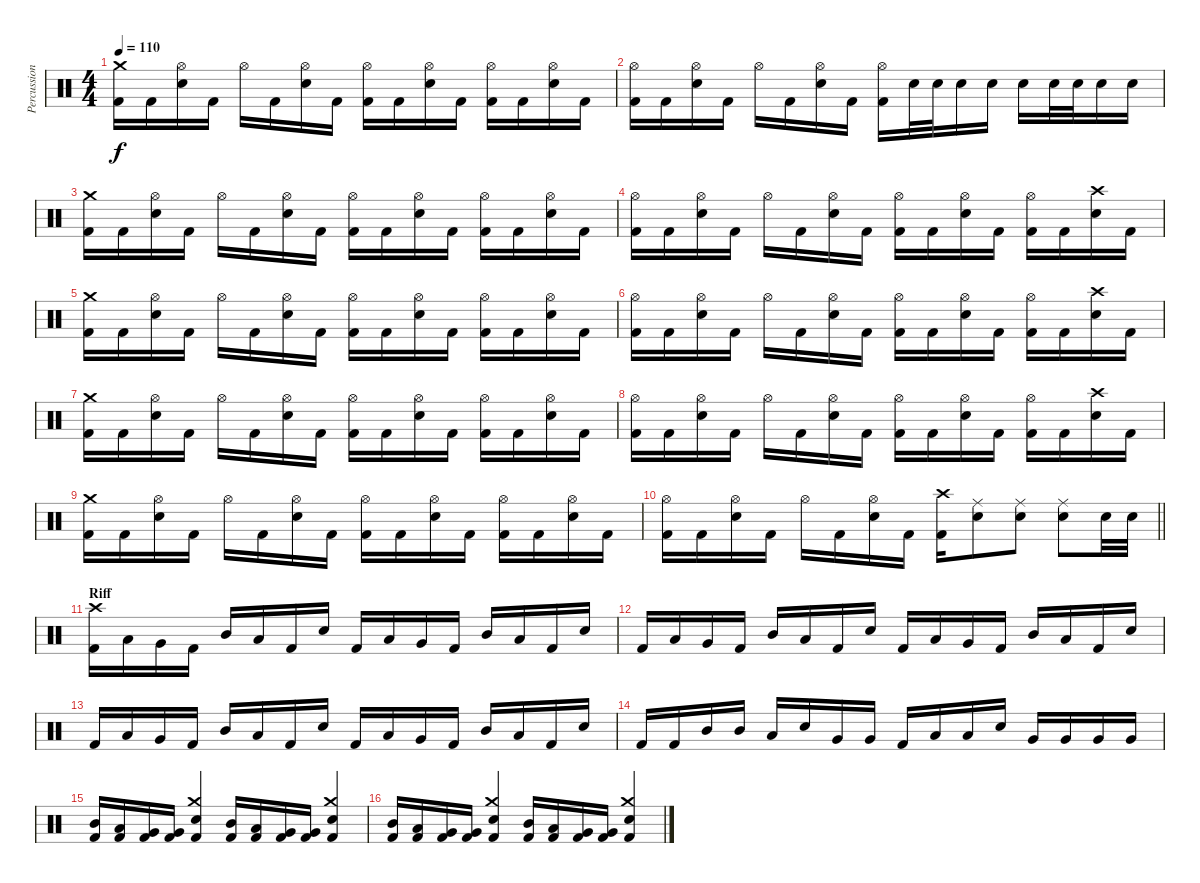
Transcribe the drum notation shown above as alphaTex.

\track ("Percussion" "Percussion") {instrument percussion}
\staff {score}
\articulation defaults
\ts (4 4)
\tempo 110
\clef neutral
\ks c
("Kick (hit) 2" "Crash medium (hit)").16{dy f} "Kick (hit) 2".16 ("Hi-Hat (open)" "Snare (hit) 2").16 "Kick (hit) 2".16 "Hi-Hat (open)".16 "Kick (hit) 2".16 ("Hi-Hat (open)" "Snare (hit) 2").16 "Kick (hit) 2".16 ("Hi-Hat (open)" "Kick (hit) 2").16 "Kick (hit) 2".16 ("Hi-Hat (open)" "Snare (hit) 2").16 "Kick (hit) 2".16 ("Hi-Hat (open)" "Kick (hit) 2").16 "Kick (hit) 2".16 ("Hi-Hat (open)" "Snare (hit) 2").16 "Kick (hit) 2".16 |
("Hi-Hat (open)" "Kick (hit) 2").16 "Kick (hit) 2".16 ("Hi-Hat (open)" "Snare (hit) 2").16 "Kick (hit) 2".16 "Hi-Hat (open)".16 "Kick (hit) 2".16 ("Hi-Hat (open)" "Snare (hit) 2").16 "Kick (hit) 2".16 ("Hi-Hat (open)" "Kick (hit) 2").16 "Snare (hit) 2".32 "Snare (hit) 2".32 "Snare (hit) 2".16 "Snare (hit) 2".16 "Snare (hit) 2".16 "Snare (hit) 2".32 "Snare (hit) 2".32 "Snare (hit) 2".16 "Snare (hit) 2".16 |
("Kick (hit) 2" "Crash medium (hit)").16 "Kick (hit) 2".16 ("Hi-Hat (open)" "Snare (hit) 2").16 "Kick (hit) 2".16 "Hi-Hat (open)".16 "Kick (hit) 2".16 ("Hi-Hat (open)" "Snare (hit) 2").16 "Kick (hit) 2".16 ("Hi-Hat (open)" "Kick (hit) 2").16 "Kick (hit) 2".16 ("Hi-Hat (open)" "Snare (hit) 2").16 "Kick (hit) 2".16 ("Hi-Hat (open)" "Kick (hit) 2").16 "Kick (hit) 2".16 ("Hi-Hat (open)" "Snare (hit) 2").16 "Kick (hit) 2".16 |
("Hi-Hat (open)" "Kick (hit) 2").16 "Kick (hit) 2".16 ("Hi-Hat (open)" "Snare (hit) 2").16 "Kick (hit) 2".16 "Hi-Hat (open)".16 "Kick (hit) 2".16 ("Hi-Hat (open)" "Snare (hit) 2").16 "Kick (hit) 2".16 ("Hi-Hat (open)" "Kick (hit) 2").16 "Kick (hit) 2".16 ("Hi-Hat (open)" "Snare (hit) 2").16 "Kick (hit) 2".16 ("Hi-Hat (open)" "Kick (hit) 2").16 "Kick (hit) 2".16 ("Snare (hit) 2" "Crash high (hit)").16 "Kick (hit) 2".16 |
("Kick (hit) 2" "Crash medium (hit)").16 "Kick (hit) 2".16 ("Hi-Hat (open)" "Snare (hit) 2").16 "Kick (hit) 2".16 "Hi-Hat (open)".16 "Kick (hit) 2".16 ("Hi-Hat (open)" "Snare (hit) 2").16 "Kick (hit) 2".16 ("Hi-Hat (open)" "Kick (hit) 2").16 "Kick (hit) 2".16 ("Hi-Hat (open)" "Snare (hit) 2").16 "Kick (hit) 2".16 ("Hi-Hat (open)" "Kick (hit) 2").16 "Kick (hit) 2".16 ("Hi-Hat (open)" "Snare (hit) 2").16 "Kick (hit) 2".16 |
("Hi-Hat (open)" "Kick (hit) 2").16 "Kick (hit) 2".16 ("Hi-Hat (open)" "Snare (hit) 2").16 "Kick (hit) 2".16 "Hi-Hat (open)".16 "Kick (hit) 2".16 ("Hi-Hat (open)" "Snare (hit) 2").16 "Kick (hit) 2".16 ("Hi-Hat (open)" "Kick (hit) 2").16 "Kick (hit) 2".16 ("Hi-Hat (open)" "Snare (hit) 2").16 "Kick (hit) 2".16 ("Hi-Hat (open)" "Kick (hit) 2").16 "Kick (hit) 2".16 ("Snare (hit) 2" "Crash high (hit)").16 "Kick (hit) 2".16 |
("Kick (hit) 2" "Crash medium (hit)").16 "Kick (hit) 2".16 ("Hi-Hat (open)" "Snare (hit) 2").16 "Kick (hit) 2".16 "Hi-Hat (open)".16 "Kick (hit) 2".16 ("Hi-Hat (open)" "Snare (hit) 2").16 "Kick (hit) 2".16 ("Hi-Hat (open)" "Kick (hit) 2").16 "Kick (hit) 2".16 ("Hi-Hat (open)" "Snare (hit) 2").16 "Kick (hit) 2".16 ("Hi-Hat (open)" "Kick (hit) 2").16 "Kick (hit) 2".16 ("Hi-Hat (open)" "Snare (hit) 2").16 "Kick (hit) 2".16 |
("Hi-Hat (open)" "Kick (hit) 2").16 "Kick (hit) 2".16 ("Hi-Hat (open)" "Snare (hit) 2").16 "Kick (hit) 2".16 "Hi-Hat (open)".16 "Kick (hit) 2".16 ("Hi-Hat (open)" "Snare (hit) 2").16 "Kick (hit) 2".16 ("Hi-Hat (open)" "Kick (hit) 2").16 "Kick (hit) 2".16 ("Hi-Hat (open)" "Snare (hit) 2").16 "Kick (hit) 2".16 ("Hi-Hat (open)" "Kick (hit) 2").16 "Kick (hit) 2".16 ("Snare (hit) 2" "Crash high (hit)").16 "Kick (hit) 2".16 |
("Kick (hit) 2" "Crash medium (hit)").16 "Kick (hit) 2".16 ("Hi-Hat (open)" "Snare (hit) 2").16 "Kick (hit) 2".16 "Hi-Hat (open)".16 "Kick (hit) 2".16 ("Hi-Hat (open)" "Snare (hit) 2").16 "Kick (hit) 2".16 ("Hi-Hat (open)" "Kick (hit) 2").16 "Kick (hit) 2".16 ("Hi-Hat (open)" "Snare (hit) 2").16 "Kick (hit) 2".16 ("Hi-Hat (open)" "Kick (hit) 2").16 "Kick (hit) 2".16 ("Hi-Hat (open)" "Snare (hit) 2").16 "Kick (hit) 2".16 |
\barLineRight lightlight
("Hi-Hat (open)" "Kick (hit) 2").16 "Kick (hit) 2".16 ("Hi-Hat (open)" "Snare (hit) 2").16 "Kick (hit) 2".16 "Hi-Hat (open)".16 "Kick (hit) 2".16 ("Hi-Hat (open)" "Snare (hit) 2").16 "Kick (hit) 2".16 ("Kick (hit) 2" "Crash high (hit)").16 ("Ride (middle)" "Snare (hit) 2").8 ("Ride (middle)" "Snare (hit) 2").8 ("Ride (middle)" "Snare (hit) 2").8 "Snare (hit) 2".32 "Snare (hit) 2".32 |
\section ("" "Riff")
("Kick (hit) 2" "Crash high (hit)").16 "Low Tom (hit)".16 "Very Low Tom (hit)".16 "Kick (hit) 2".16 "Mid Tom (hit)".16 "Low Tom (hit)".16 "Kick (hit) 2".16 "Snare (hit) 2".16 "Kick (hit) 2".16 "Low Tom (hit)".16 "Very Low Tom (hit)".16 "Kick (hit) 2".16 "Mid Tom (hit)".16 "Low Tom (hit)".16 "Kick (hit) 2".16 "Snare (hit) 2".16 |
"Kick (hit) 2".16 "Low Tom (hit)".16 "Very Low Tom (hit)".16 "Kick (hit) 2".16 "Mid Tom (hit)".16 "Low Tom (hit)".16 "Kick (hit) 2".16 "Snare (hit) 2".16 "Kick (hit) 2".16 "Low Tom (hit)".16 "Very Low Tom (hit)".16 "Kick (hit) 2".16 "Mid Tom (hit)".16 "Low Tom (hit)".16 "Kick (hit) 2".16 "Snare (hit) 2".16 |
"Kick (hit) 2".16 "Low Tom (hit)".16 "Very Low Tom (hit)".16 "Kick (hit) 2".16 "Mid Tom (hit)".16 "Low Tom (hit)".16 "Kick (hit) 2".16 "Snare (hit) 2".16 "Kick (hit) 2".16 "Low Tom (hit)".16 "Very Low Tom (hit)".16 "Kick (hit) 2".16 "Mid Tom (hit)".16 "Low Tom (hit)".16 "Kick (hit) 2".16 "Snare (hit) 2".16 |
"Kick (hit) 2".16 "Kick (hit) 2".16 "Mid Tom (hit)".16 "Mid Tom (hit)".16 "Low Tom (hit)".16 "Snare (hit) 2".16 "Very Low Tom (hit)".16 "Very Low Tom (hit)".16 "Kick (hit) 2".16 "Low Tom (hit)".16 "Low Tom (hit)".16 "Snare (hit) 2".16 "Very Low Tom (hit)".16 "Very Low Tom (hit)".16 "Very Low Tom (hit)".16 "Very Low Tom (hit)".16 |
("Mid Tom (hit)" "Kick (hit) 2").16 ("Low Tom (hit)" "Kick (hit) 2").16 ("Very Low Tom (hit)" "Kick (hit) 2").16 ("Very Low Tom (hit)" "Kick (hit) 2").16 ("Snare (hit) 2" "Kick (hit) 2" "Crash medium (hit)").4 ("Mid Tom (hit)" "Kick (hit) 2").16 ("Low Tom (hit)" "Kick (hit) 2").16 ("Very Low Tom (hit)" "Kick (hit) 2").16 ("Very Low Tom (hit)" "Kick (hit) 2").16 ("Snare (hit) 2" "Kick (hit) 2" "Crash medium (hit)").4 |
("Mid Tom (hit)" "Kick (hit) 2").16 ("Low Tom (hit)" "Kick (hit) 2").16 ("Very Low Tom (hit)" "Kick (hit) 2").16 ("Very Low Tom (hit)" "Kick (hit) 2").16 ("Snare (hit) 2" "Kick (hit) 2" "Crash medium (hit)").4 ("Mid Tom (hit)" "Kick (hit) 2").16 ("Low Tom (hit)" "Kick (hit) 2").16 ("Very Low Tom (hit)" "Kick (hit) 2").16 ("Very Low Tom (hit)" "Kick (hit) 2").16 ("Snare (hit) 2" "Kick (hit) 2" "Crash medium (hit)").4
